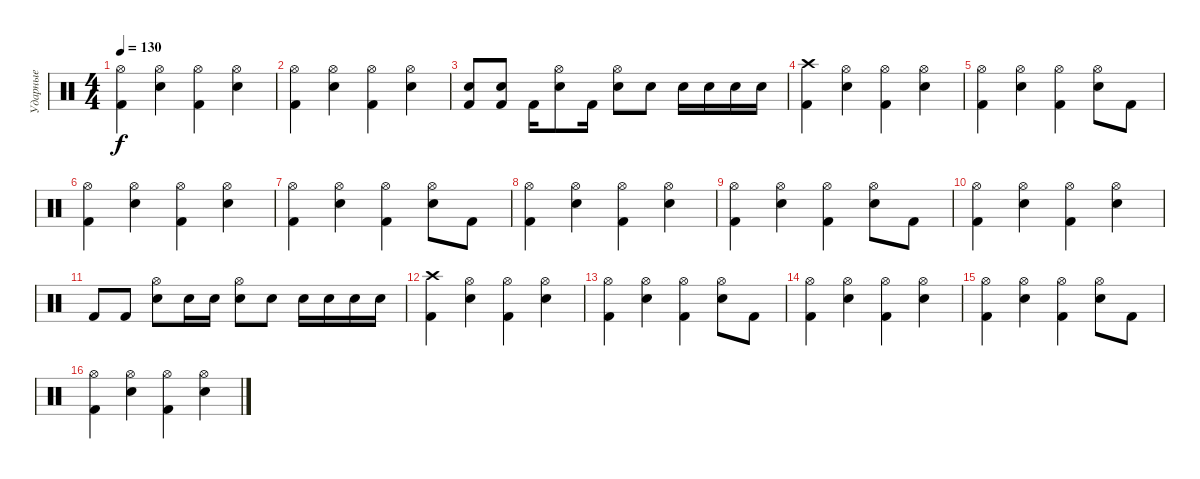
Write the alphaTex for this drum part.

\track ("Ударные" "Ударные") {instrument percussion}
\staff
\articulation defaults
\ts (4 4)
\tempo 130
\clef neutral
\ks c
("Kick (hit) 2" "Hi-Hat (open)").4{dy f} ("Snare (hit) 2" "Hi-Hat (open)").4 ("Kick (hit) 2" "Hi-Hat (open)").4 ("Snare (hit) 2" "Hi-Hat (open)").4 |
("Kick (hit) 2" "Hi-Hat (open)").4 ("Snare (hit) 2" "Hi-Hat (open)").4 ("Kick (hit) 2" "Hi-Hat (open)").4 ("Snare (hit) 2" "Hi-Hat (open)").4 |
("Kick (hit) 2" "Snare (hit) 2").8 ("Kick (hit) 2" "Snare (hit) 2").8 "Kick (hit) 2".16 ("Snare (hit) 2" "Hi-Hat (open)").8 "Kick (hit) 2".16 ("Snare (hit) 2" "Hi-Hat (open)").8 "Snare (hit) 2".8 "Snare (hit) 2".16 "Snare (hit) 2".16 "Snare (hit) 2".16 "Snare (hit) 2".16 |
("Kick (hit) 2" "Crash high (hit)").4 ("Snare (hit) 2" "Hi-Hat (open)").4 ("Kick (hit) 2" "Hi-Hat (open)").4 ("Snare (hit) 2" "Hi-Hat (open)").4 |
("Kick (hit) 2" "Hi-Hat (open)").4 ("Snare (hit) 2" "Hi-Hat (open)").4 ("Kick (hit) 2" "Hi-Hat (open)").4 ("Snare (hit) 2" "Hi-Hat (open)").8 "Kick (hit) 2".8 |
("Kick (hit) 2" "Hi-Hat (open)").4 ("Snare (hit) 2" "Hi-Hat (open)").4 ("Kick (hit) 2" "Hi-Hat (open)").4 ("Snare (hit) 2" "Hi-Hat (open)").4 |
("Kick (hit) 2" "Hi-Hat (open)").4 ("Snare (hit) 2" "Hi-Hat (open)").4 ("Kick (hit) 2" "Hi-Hat (open)").4 ("Snare (hit) 2" "Hi-Hat (open)").8 "Kick (hit) 2".8 |
("Kick (hit) 2" "Hi-Hat (open)").4 ("Snare (hit) 2" "Hi-Hat (open)").4 ("Kick (hit) 2" "Hi-Hat (open)").4 ("Snare (hit) 2" "Hi-Hat (open)").4 |
("Kick (hit) 2" "Hi-Hat (open)").4 ("Snare (hit) 2" "Hi-Hat (open)").4 ("Kick (hit) 2" "Hi-Hat (open)").4 ("Snare (hit) 2" "Hi-Hat (open)").8 "Kick (hit) 2".8 |
("Kick (hit) 2" "Hi-Hat (open)").4 ("Snare (hit) 2" "Hi-Hat (open)").4 ("Kick (hit) 2" "Hi-Hat (open)").4 ("Snare (hit) 2" "Hi-Hat (open)").4 |
"Kick (hit) 2".8 "Kick (hit) 2".8 ("Snare (hit) 2" "Hi-Hat (open)").8 "Snare (hit) 2".16 "Snare (hit) 2".16 ("Snare (hit) 2" "Hi-Hat (open)").8 "Snare (hit) 2".8 "Snare (hit) 2".16 "Snare (hit) 2".16 "Snare (hit) 2".16 "Snare (hit) 2".16 |
("Kick (hit) 2" "Crash high (hit)").4 ("Snare (hit) 2" "Hi-Hat (open)").4 ("Kick (hit) 2" "Hi-Hat (open)").4 ("Snare (hit) 2" "Hi-Hat (open)").4 |
("Kick (hit) 2" "Hi-Hat (open)").4 ("Snare (hit) 2" "Hi-Hat (open)").4 ("Kick (hit) 2" "Hi-Hat (open)").4 ("Snare (hit) 2" "Hi-Hat (open)").8 "Kick (hit) 2".8 |
("Kick (hit) 2" "Hi-Hat (open)").4 ("Snare (hit) 2" "Hi-Hat (open)").4 ("Kick (hit) 2" "Hi-Hat (open)").4 ("Snare (hit) 2" "Hi-Hat (open)").4 |
("Kick (hit) 2" "Hi-Hat (open)").4 ("Snare (hit) 2" "Hi-Hat (open)").4 ("Kick (hit) 2" "Hi-Hat (open)").4 ("Snare (hit) 2" "Hi-Hat (open)").8 "Kick (hit) 2".8 |
("Kick (hit) 2" "Hi-Hat (open)").4 ("Snare (hit) 2" "Hi-Hat (open)").4 ("Kick (hit) 2" "Hi-Hat (open)").4 ("Snare (hit) 2" "Hi-Hat (open)").4
